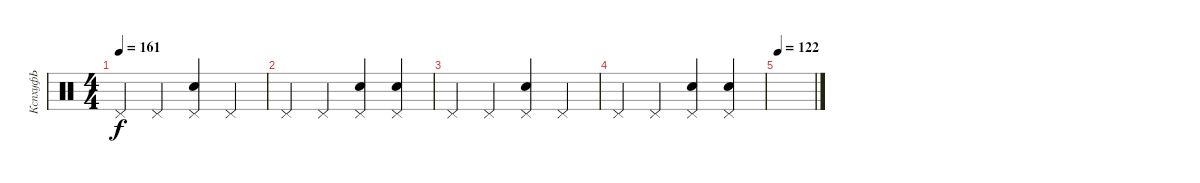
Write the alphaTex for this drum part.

\track ("КспхуфЬ" "КспхуфЬ") {instrument percussion}
\staff {score}
\articulation defaults
\ts (4 4)
\tempo 161
\clef neutral
\ks c "Pedal Hi-Hat (hit)".4{dy f} "Pedal Hi-Hat (hit)".4
("Snare (hit) 2" "Pedal Hi-Hat (hit)").4 "Pedal Hi-Hat (hit)".4 |
"Pedal Hi-Hat (hit)".4 "Pedal Hi-Hat (hit)".4 ("Snare (hit) 2" "Pedal Hi-Hat (hit)").4 ("Snare (hit) 2" "Pedal Hi-Hat (hit)").4 |
"Pedal Hi-Hat (hit)".4 "Pedal Hi-Hat (hit)".4 ("Snare (hit) 2" "Pedal Hi-Hat (hit)").4 "Pedal Hi-Hat (hit)".4 |
"Pedal Hi-Hat (hit)".4 "Pedal Hi-Hat (hit)".4 ("Snare (hit) 2" "Pedal Hi-Hat (hit)").4 ("Snare (hit) 2" "Pedal Hi-Hat (hit)").4 |
\tempo 122
